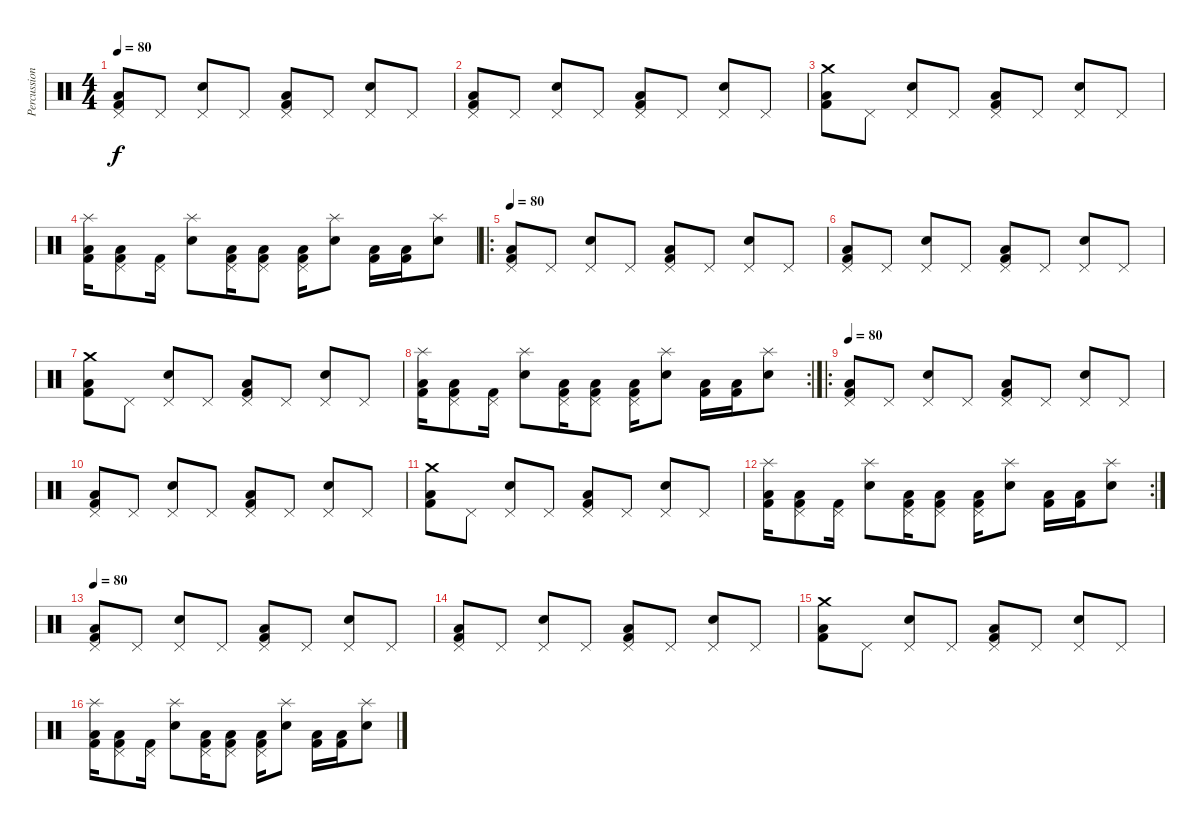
\track ("Percussions" "Percussion") {instrument percussion}
\staff {score}
\articulation defaults
\ts (4 4)
\tempo 80
\clef neutral
\ks c
("Pedal Hi-Hat (hit)" "Kick (hit) 2" "Low Floor Tom (hit)").8{dy f} "Pedal Hi-Hat (hit)".8 ("Pedal Hi-Hat (hit)" "Electric Snare (hit)").8 "Pedal Hi-Hat (hit)".8 ("Pedal Hi-Hat (hit)" "Kick (hit) 2" "Low Floor Tom (hit)").8 "Pedal Hi-Hat (hit)".8 ("Pedal Hi-Hat (hit)" "Electric Snare (hit)").8 "Pedal Hi-Hat (hit)".8 |
("Pedal Hi-Hat (hit)" "Kick (hit) 2" "Low Floor Tom (hit)").8 "Pedal Hi-Hat (hit)".8 ("Pedal Hi-Hat (hit)" "Electric Snare (hit)").8 "Pedal Hi-Hat (hit)".8 ("Pedal Hi-Hat (hit)" "Kick (hit) 2" "Low Floor Tom (hit)").8 "Pedal Hi-Hat (hit)".8 ("Pedal Hi-Hat (hit)" "Electric Snare (hit)").8 "Pedal Hi-Hat (hit)".8 |
("Crash medium (hit)" "Kick (hit) 2" "Low Floor Tom (hit)").8 "Pedal Hi-Hat (hit)".8 ("Pedal Hi-Hat (hit)" "Electric Snare (hit)").8 "Pedal Hi-Hat (hit)".8 ("Pedal Hi-Hat (hit)" "Kick (hit) 2" "Low Floor Tom (hit)").8 "Pedal Hi-Hat (hit)".8 ("Pedal Hi-Hat (hit)" "Electric Snare (hit)").8 "Pedal Hi-Hat (hit)".8 |
("Splash (hit)" "Kick (hit) 2" "Low Floor Tom (hit)").16 ("Pedal Hi-Hat (hit)" "Kick (hit) 2" "Low Floor Tom (hit)").8 ("Pedal Hi-Hat (hit)" "Kick (hit) 2").16 ("Splash (hit)" "Electric Snare (hit)").8 ("Pedal Hi-Hat (hit)" "Kick (hit) 2" "Low Floor Tom (hit)").16 ("Pedal Hi-Hat (hit)" "Kick (hit) 2" "Low Floor Tom (hit)").8 ("Pedal Hi-Hat (hit)" "Kick (hit) 2" "Low Floor Tom (hit)").16 ("Splash (hit)" "Electric Snare (hit)").8 ("Kick (hit) 2" "Low Floor Tom (hit)").16 ("Kick (hit) 2" "Low Floor Tom (hit)").16 ("Splash (hit)" "Electric Snare (hit)").8 |
\ro
\tempo 80
("Pedal Hi-Hat (hit)" "Kick (hit) 2" "Low Floor Tom (hit)").8 "Pedal Hi-Hat (hit)".8 ("Pedal Hi-Hat (hit)" "Electric Snare (hit)").8 "Pedal Hi-Hat (hit)".8 ("Pedal Hi-Hat (hit)" "Kick (hit) 2" "Low Floor Tom (hit)").8 "Pedal Hi-Hat (hit)".8 ("Pedal Hi-Hat (hit)" "Electric Snare (hit)").8 "Pedal Hi-Hat (hit)".8 |
("Pedal Hi-Hat (hit)" "Kick (hit) 2" "Low Floor Tom (hit)").8 "Pedal Hi-Hat (hit)".8 ("Pedal Hi-Hat (hit)" "Electric Snare (hit)").8 "Pedal Hi-Hat (hit)".8 ("Pedal Hi-Hat (hit)" "Kick (hit) 2" "Low Floor Tom (hit)").8 "Pedal Hi-Hat (hit)".8 ("Pedal Hi-Hat (hit)" "Electric Snare (hit)").8 "Pedal Hi-Hat (hit)".8 |
("Crash medium (hit)" "Kick (hit) 2" "Low Floor Tom (hit)").8 "Pedal Hi-Hat (hit)".8 ("Pedal Hi-Hat (hit)" "Electric Snare (hit)").8 "Pedal Hi-Hat (hit)".8 ("Pedal Hi-Hat (hit)" "Kick (hit) 2" "Low Floor Tom (hit)").8 "Pedal Hi-Hat (hit)".8 ("Pedal Hi-Hat (hit)" "Electric Snare (hit)").8 "Pedal Hi-Hat (hit)".8 |
\rc 2
("Splash (hit)" "Kick (hit) 2" "Low Floor Tom (hit)").16 ("Pedal Hi-Hat (hit)" "Kick (hit) 2" "Low Floor Tom (hit)").8 ("Pedal Hi-Hat (hit)" "Kick (hit) 2").16 ("Splash (hit)" "Electric Snare (hit)").8 ("Pedal Hi-Hat (hit)" "Kick (hit) 2" "Low Floor Tom (hit)").16 ("Pedal Hi-Hat (hit)" "Kick (hit) 2" "Low Floor Tom (hit)").8 ("Pedal Hi-Hat (hit)" "Kick (hit) 2" "Low Floor Tom (hit)").16 ("Splash (hit)" "Electric Snare (hit)").8 ("Kick (hit) 2" "Low Floor Tom (hit)").16 ("Kick (hit) 2" "Low Floor Tom (hit)").16 ("Splash (hit)" "Electric Snare (hit)").8 |
\ro
\tempo 80
("Pedal Hi-Hat (hit)" "Kick (hit) 2" "Low Floor Tom (hit)").8 "Pedal Hi-Hat (hit)".8 ("Pedal Hi-Hat (hit)" "Electric Snare (hit)").8 "Pedal Hi-Hat (hit)".8 ("Pedal Hi-Hat (hit)" "Kick (hit) 2" "Low Floor Tom (hit)").8 "Pedal Hi-Hat (hit)".8 ("Pedal Hi-Hat (hit)" "Electric Snare (hit)").8 "Pedal Hi-Hat (hit)".8 |
("Pedal Hi-Hat (hit)" "Kick (hit) 2" "Low Floor Tom (hit)").8 "Pedal Hi-Hat (hit)".8 ("Pedal Hi-Hat (hit)" "Electric Snare (hit)").8 "Pedal Hi-Hat (hit)".8 ("Pedal Hi-Hat (hit)" "Kick (hit) 2" "Low Floor Tom (hit)").8 "Pedal Hi-Hat (hit)".8 ("Pedal Hi-Hat (hit)" "Electric Snare (hit)").8 "Pedal Hi-Hat (hit)".8 |
("Crash medium (hit)" "Kick (hit) 2" "Low Floor Tom (hit)").8 "Pedal Hi-Hat (hit)".8 ("Pedal Hi-Hat (hit)" "Electric Snare (hit)").8 "Pedal Hi-Hat (hit)".8 ("Pedal Hi-Hat (hit)" "Kick (hit) 2" "Low Floor Tom (hit)").8 "Pedal Hi-Hat (hit)".8 ("Pedal Hi-Hat (hit)" "Electric Snare (hit)").8 "Pedal Hi-Hat (hit)".8 |
\rc 2
("Splash (hit)" "Kick (hit) 2" "Low Floor Tom (hit)").16 ("Pedal Hi-Hat (hit)" "Kick (hit) 2" "Low Floor Tom (hit)").8 ("Pedal Hi-Hat (hit)" "Kick (hit) 2").16 ("Splash (hit)" "Electric Snare (hit)").8 ("Pedal Hi-Hat (hit)" "Kick (hit) 2" "Low Floor Tom (hit)").16 ("Pedal Hi-Hat (hit)" "Kick (hit) 2" "Low Floor Tom (hit)").8 ("Pedal Hi-Hat (hit)" "Kick (hit) 2" "Low Floor Tom (hit)").16 ("Splash (hit)" "Electric Snare (hit)").8 ("Kick (hit) 2" "Low Floor Tom (hit)").16 ("Kick (hit) 2" "Low Floor Tom (hit)").16 ("Splash (hit)" "Electric Snare (hit)").8 |
\tempo 80
("Pedal Hi-Hat (hit)" "Kick (hit) 2" "Low Floor Tom (hit)").8 "Pedal Hi-Hat (hit)".8 ("Pedal Hi-Hat (hit)" "Electric Snare (hit)").8 "Pedal Hi-Hat (hit)".8 ("Pedal Hi-Hat (hit)" "Kick (hit) 2" "Low Floor Tom (hit)").8 "Pedal Hi-Hat (hit)".8 ("Pedal Hi-Hat (hit)" "Electric Snare (hit)").8 "Pedal Hi-Hat (hit)".8 |
("Pedal Hi-Hat (hit)" "Kick (hit) 2" "Low Floor Tom (hit)").8 "Pedal Hi-Hat (hit)".8 ("Pedal Hi-Hat (hit)" "Electric Snare (hit)").8 "Pedal Hi-Hat (hit)".8 ("Pedal Hi-Hat (hit)" "Kick (hit) 2" "Low Floor Tom (hit)").8 "Pedal Hi-Hat (hit)".8 ("Pedal Hi-Hat (hit)" "Electric Snare (hit)").8 "Pedal Hi-Hat (hit)".8 |
("Crash medium (hit)" "Kick (hit) 2" "Low Floor Tom (hit)").8 "Pedal Hi-Hat (hit)".8 ("Pedal Hi-Hat (hit)" "Electric Snare (hit)").8 "Pedal Hi-Hat (hit)".8 ("Pedal Hi-Hat (hit)" "Kick (hit) 2" "Low Floor Tom (hit)").8 "Pedal Hi-Hat (hit)".8 ("Pedal Hi-Hat (hit)" "Electric Snare (hit)").8 "Pedal Hi-Hat (hit)".8 |
("Splash (hit)" "Kick (hit) 2" "Low Floor Tom (hit)").16 ("Pedal Hi-Hat (hit)" "Kick (hit) 2" "Low Floor Tom (hit)").8 ("Pedal Hi-Hat (hit)" "Kick (hit) 2").16 ("Splash (hit)" "Electric Snare (hit)").8 ("Pedal Hi-Hat (hit)" "Kick (hit) 2" "Low Floor Tom (hit)").16 ("Pedal Hi-Hat (hit)" "Kick (hit) 2" "Low Floor Tom (hit)").8 ("Pedal Hi-Hat (hit)" "Kick (hit) 2" "Low Floor Tom (hit)").16 ("Splash (hit)" "Electric Snare (hit)").8 ("Kick (hit) 2" "Low Floor Tom (hit)").16 ("Kick (hit) 2" "Low Floor Tom (hit)").16 ("Splash (hit)" "Electric Snare (hit)").8
